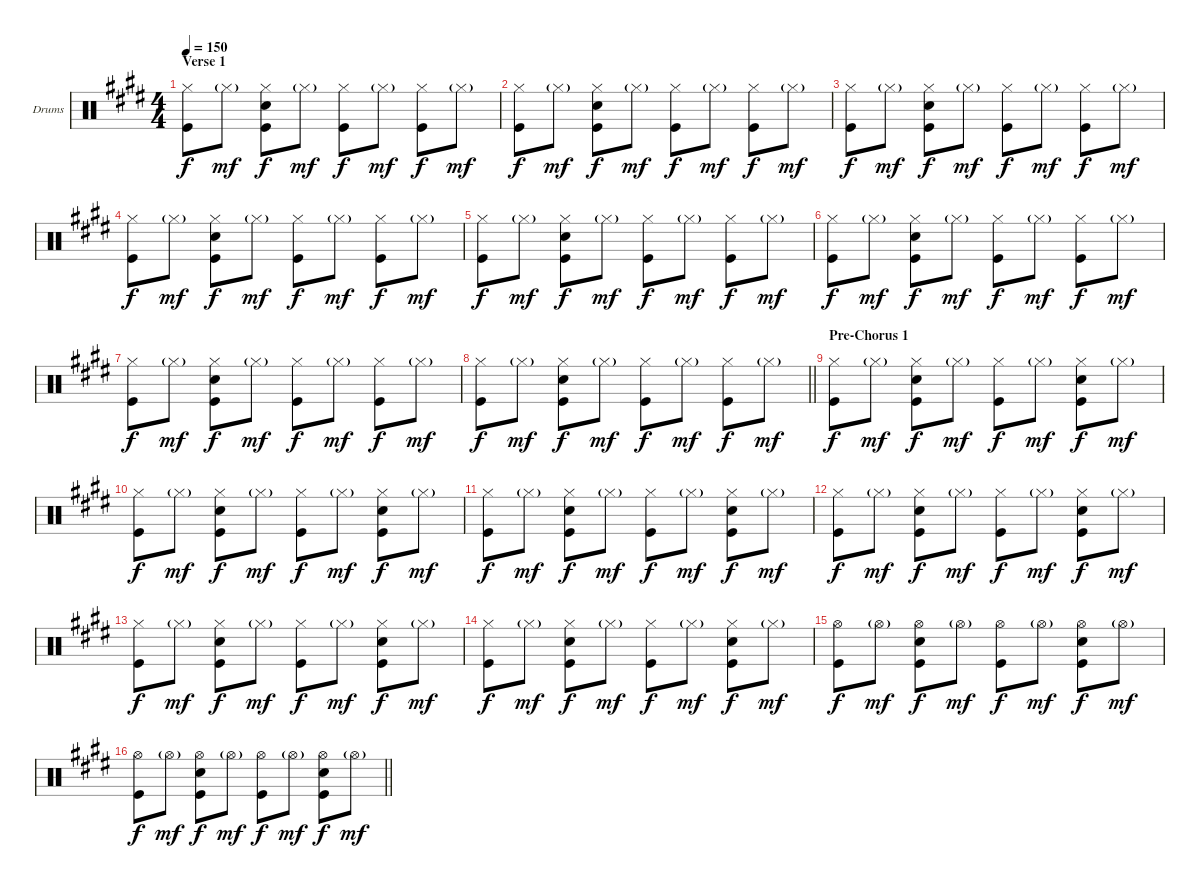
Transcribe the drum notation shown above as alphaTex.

\bracketExtendMode groupsimilarinstruments
\firstSystemTrackNameOrientation horizontal
\otherSystemsTrackNameOrientation horizontal
\track ("Drumkit" "Drums") {instrument percussion}
\staff {score}
\articulation defaults
\ts (4 4)
\section ("" "Verse 1")
\tempo 150
\clef neutral
\ks e
("Hi-Hat (closed)" "Kick (hit)").8{dy f} "Hi-Hat (closed)"{g}.8{dy mf} ("Hi-Hat (closed)" "Snare (hit) 2" "Kick (hit)").8{dy f} "Hi-Hat (closed)"{g}.8{dy mf} ("Hi-Hat (closed)" "Kick (hit)").8{dy f} "Hi-Hat (closed)"{g}.8{dy mf} ("Hi-Hat (closed)" "Kick (hit)").8{dy f} "Hi-Hat (closed)"{g}.8{dy mf} |
("Hi-Hat (closed)" "Kick (hit)").8{dy f} "Hi-Hat (closed)"{g}.8{dy mf} ("Hi-Hat (closed)" "Snare (hit) 2" "Kick (hit)").8{dy f} "Hi-Hat (closed)"{g}.8{dy mf} ("Hi-Hat (closed)" "Kick (hit)").8{dy f} "Hi-Hat (closed)"{g}.8{dy mf} ("Hi-Hat (closed)" "Kick (hit)").8{dy f} "Hi-Hat (closed)"{g}.8{dy mf} |
("Hi-Hat (closed)" "Kick (hit)").8{dy f} "Hi-Hat (closed)"{g}.8{dy mf} ("Hi-Hat (closed)" "Snare (hit) 2" "Kick (hit)").8{dy f} "Hi-Hat (closed)"{g}.8{dy mf} ("Hi-Hat (closed)" "Kick (hit)").8{dy f} "Hi-Hat (closed)"{g}.8{dy mf} ("Hi-Hat (closed)" "Kick (hit)").8{dy f} "Hi-Hat (closed)"{g}.8{dy mf} |
("Hi-Hat (closed)" "Kick (hit)").8{dy f} "Hi-Hat (closed)"{g}.8{dy mf} ("Hi-Hat (closed)" "Snare (hit) 2" "Kick (hit)").8{dy f} "Hi-Hat (closed)"{g}.8{dy mf} ("Hi-Hat (closed)" "Kick (hit)").8{dy f} "Hi-Hat (closed)"{g}.8{dy mf} ("Hi-Hat (closed)" "Kick (hit)").8{dy f} "Hi-Hat (closed)"{g}.8{dy mf} |
("Hi-Hat (closed)" "Kick (hit)").8{dy f} "Hi-Hat (closed)"{g}.8{dy mf} ("Hi-Hat (closed)" "Snare (hit) 2" "Kick (hit)").8{dy f} "Hi-Hat (closed)"{g}.8{dy mf} ("Hi-Hat (closed)" "Kick (hit)").8{dy f} "Hi-Hat (closed)"{g}.8{dy mf} ("Hi-Hat (closed)" "Kick (hit)").8{dy f} "Hi-Hat (closed)"{g}.8{dy mf} |
("Hi-Hat (closed)" "Kick (hit)").8{dy f} "Hi-Hat (closed)"{g}.8{dy mf} ("Hi-Hat (closed)" "Snare (hit) 2" "Kick (hit)").8{dy f} "Hi-Hat (closed)"{g}.8{dy mf} ("Hi-Hat (closed)" "Kick (hit)").8{dy f} "Hi-Hat (closed)"{g}.8{dy mf} ("Hi-Hat (closed)" "Kick (hit)").8{dy f} "Hi-Hat (closed)"{g}.8{dy mf} |
("Hi-Hat (closed)" "Kick (hit)").8{dy f} "Hi-Hat (closed)"{g}.8{dy mf} ("Hi-Hat (closed)" "Snare (hit) 2" "Kick (hit)").8{dy f} "Hi-Hat (closed)"{g}.8{dy mf} ("Hi-Hat (closed)" "Kick (hit)").8{dy f} "Hi-Hat (closed)"{g}.8{dy mf} ("Hi-Hat (closed)" "Kick (hit)").8{dy f} "Hi-Hat (closed)"{g}.8{dy mf} |
\barLineRight lightlight
("Hi-Hat (closed)" "Kick (hit)").8{dy f} "Hi-Hat (closed)"{g}.8{dy mf} ("Hi-Hat (closed)" "Snare (hit) 2" "Kick (hit)").8{dy f} "Hi-Hat (closed)"{g}.8{dy mf} ("Hi-Hat (closed)" "Kick (hit)").8{dy f} "Hi-Hat (closed)"{g}.8{dy mf} ("Hi-Hat (closed)" "Kick (hit)").8{dy f} "Hi-Hat (closed)"{g}.8{dy mf} |
\section ("" "Pre-Chorus 1")
("Hi-Hat (closed)" "Kick (hit)").8{dy f} "Hi-Hat (closed)"{g}.8{dy mf} ("Hi-Hat (closed)" "Snare (hit) 2" "Kick (hit)").8{dy f} "Hi-Hat (closed)"{g}.8{dy mf} ("Hi-Hat (closed)" "Kick (hit)").8{dy f} "Hi-Hat (closed)"{g}.8{dy mf} ("Hi-Hat (closed)" "Snare (hit) 2" "Kick (hit)").8{dy f} "Hi-Hat (closed)"{g}.8{dy mf} |
("Hi-Hat (closed)" "Kick (hit)").8{dy f} "Hi-Hat (closed)"{g}.8{dy mf} ("Hi-Hat (closed)" "Snare (hit) 2" "Kick (hit)").8{dy f} "Hi-Hat (closed)"{g}.8{dy mf} ("Hi-Hat (closed)" "Kick (hit)").8{dy f} "Hi-Hat (closed)"{g}.8{dy mf} ("Hi-Hat (closed)" "Snare (hit) 2" "Kick (hit)").8{dy f} "Hi-Hat (closed)"{g}.8{dy mf} |
("Hi-Hat (closed)" "Kick (hit)").8{dy f} "Hi-Hat (closed)"{g}.8{dy mf} ("Hi-Hat (closed)" "Snare (hit) 2" "Kick (hit)").8{dy f} "Hi-Hat (closed)"{g}.8{dy mf} ("Hi-Hat (closed)" "Kick (hit)").8{dy f} "Hi-Hat (closed)"{g}.8{dy mf} ("Hi-Hat (closed)" "Snare (hit) 2" "Kick (hit)").8{dy f} "Hi-Hat (closed)"{g}.8{dy mf} |
("Hi-Hat (closed)" "Kick (hit)").8{dy f} "Hi-Hat (closed)"{g}.8{dy mf} ("Hi-Hat (closed)" "Snare (hit) 2" "Kick (hit)").8{dy f} "Hi-Hat (closed)"{g}.8{dy mf} ("Hi-Hat (closed)" "Kick (hit)").8{dy f} "Hi-Hat (closed)"{g}.8{dy mf} ("Hi-Hat (closed)" "Snare (hit) 2" "Kick (hit)").8{dy f} "Hi-Hat (closed)"{g}.8{dy mf} |
("Hi-Hat (closed)" "Kick (hit)").8{dy f} "Hi-Hat (closed)"{g}.8{dy mf} ("Hi-Hat (closed)" "Snare (hit) 2" "Kick (hit)").8{dy f} "Hi-Hat (closed)"{g}.8{dy mf} ("Hi-Hat (closed)" "Kick (hit)").8{dy f} "Hi-Hat (closed)"{g}.8{dy mf} ("Hi-Hat (closed)" "Snare (hit) 2" "Kick (hit)").8{dy f} "Hi-Hat (closed)"{g}.8{dy mf} |
("Hi-Hat (closed)" "Kick (hit)").8{dy f} "Hi-Hat (closed)"{g}.8{dy mf} ("Hi-Hat (closed)" "Snare (hit) 2" "Kick (hit)").8{dy f} "Hi-Hat (closed)"{g}.8{dy mf} ("Hi-Hat (closed)" "Kick (hit)").8{dy f} "Hi-Hat (closed)"{g}.8{dy mf} ("Hi-Hat (closed)" "Snare (hit) 2" "Kick (hit)").8{dy f} "Hi-Hat (closed)"{g}.8{dy mf} |
("Hi-Hat (open)" "Kick (hit)").8{dy f} "Hi-Hat (open)"{g}.8{dy mf} ("Hi-Hat (open)" "Snare (hit) 2" "Kick (hit)").8{dy f} "Hi-Hat (open)"{g}.8{dy mf} ("Hi-Hat (open)" "Kick (hit)").8{dy f} "Hi-Hat (open)"{g}.8{dy mf} ("Hi-Hat (open)" "Snare (hit) 2" "Kick (hit)").8{dy f} "Hi-Hat (open)"{g}.8{dy mf} |
\barLineRight lightlight
("Hi-Hat (open)" "Kick (hit)").8{dy f} "Hi-Hat (open)"{g}.8{dy mf} ("Hi-Hat (open)" "Snare (hit) 2" "Kick (hit)").8{dy f} "Hi-Hat (open)"{g}.8{dy mf} ("Hi-Hat (open)" "Kick (hit)").8{dy f} "Hi-Hat (open)"{g}.8{dy mf} ("Hi-Hat (open)" "Snare (hit) 2" "Kick (hit)").8{dy f} "Hi-Hat (open)"{g}.8{dy mf}
